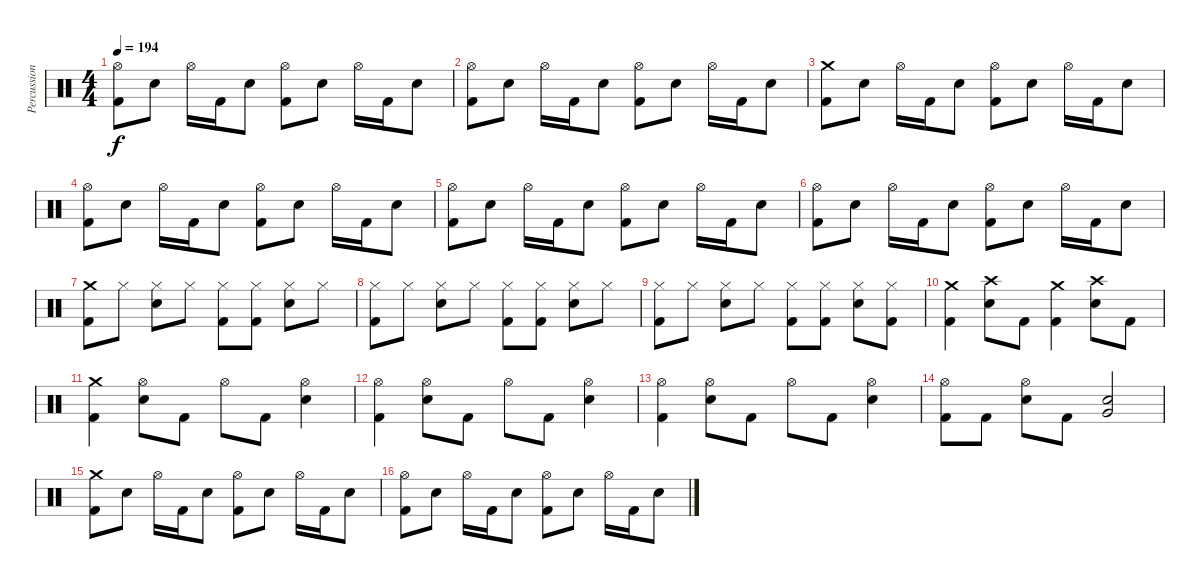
\track ("Percussions" "Percussion") {instrument percussion}
\staff {score}
\articulation defaults
\ts (4 4)
\tempo 194
\clef neutral
\ks c
("Hi-Hat (open)" "Kick (hit) 2").8{dy f} "Electric Snare (hit)".8 "Hi-Hat (open)".16 "Kick (hit) 2".16 "Electric Snare (hit)".8 ("Hi-Hat (open)" "Kick (hit) 2").8 "Electric Snare (hit)".8 "Hi-Hat (open)".16 "Kick (hit) 2".16 "Electric Snare (hit)".8 |
("Hi-Hat (open)" "Kick (hit) 2").8 "Electric Snare (hit)".8 "Hi-Hat (open)".16 "Kick (hit) 2".16 "Electric Snare (hit)".8 ("Hi-Hat (open)" "Kick (hit) 2").8 "Electric Snare (hit)".8 "Hi-Hat (open)".16 "Kick (hit) 2".16 "Electric Snare (hit)".8 |
("Crash medium (hit)" "Kick (hit) 2").8 "Electric Snare (hit)".8 "Hi-Hat (open)".16 "Kick (hit) 2".16 "Electric Snare (hit)".8 ("Hi-Hat (open)" "Kick (hit) 2").8 "Electric Snare (hit)".8 "Hi-Hat (open)".16 "Kick (hit) 2".16 "Electric Snare (hit)".8 |
("Hi-Hat (open)" "Kick (hit) 2").8 "Electric Snare (hit)".8 "Hi-Hat (open)".16 "Kick (hit) 2".16 "Electric Snare (hit)".8 ("Hi-Hat (open)" "Kick (hit) 2").8 "Electric Snare (hit)".8 "Hi-Hat (open)".16 "Kick (hit) 2".16 "Electric Snare (hit)".8 |
("Hi-Hat (open)" "Kick (hit) 2").8 "Electric Snare (hit)".8 "Hi-Hat (open)".16 "Kick (hit) 2".16 "Electric Snare (hit)".8 ("Hi-Hat (open)" "Kick (hit) 2").8 "Electric Snare (hit)".8 "Hi-Hat (open)".16 "Kick (hit) 2".16 "Electric Snare (hit)".8 |
("Hi-Hat (open)" "Kick (hit) 2").8 "Electric Snare (hit)".8 "Hi-Hat (open)".16 "Kick (hit) 2".16 "Electric Snare (hit)".8 ("Hi-Hat (open)" "Kick (hit) 2").8 "Electric Snare (hit)".8 "Hi-Hat (open)".16 "Kick (hit) 2".16 "Electric Snare (hit)".8 |
("Crash medium (hit)" "Kick (hit) 2").8 "Hi-Hat (closed)".8 ("Hi-Hat (closed)" "Electric Snare (hit)").8 "Hi-Hat (closed)".8 ("Hi-Hat (closed)" "Kick (hit) 2").8 ("Hi-Hat (closed)" "Kick (hit) 2").8 ("Hi-Hat (closed)" "Electric Snare (hit)").8 "Hi-Hat (closed)".8 |
("Hi-Hat (closed)" "Kick (hit) 2").8 "Hi-Hat (closed)".8 ("Hi-Hat (closed)" "Electric Snare (hit)").8 "Hi-Hat (closed)".8 ("Hi-Hat (closed)" "Kick (hit) 2").8 ("Hi-Hat (closed)" "Kick (hit) 2").8 ("Hi-Hat (closed)" "Electric Snare (hit)").8 "Hi-Hat (closed)".8 |
("Hi-Hat (closed)" "Kick (hit) 2").8 "Hi-Hat (closed)".8 ("Hi-Hat (closed)" "Electric Snare (hit)").8 "Hi-Hat (closed)".8 ("Hi-Hat (closed)" "Kick (hit) 2").8 ("Hi-Hat (closed)" "Kick (hit) 2").8 ("Hi-Hat (closed)" "Electric Snare (hit)").8 ("Hi-Hat (closed)" "Kick (hit) 2").8 |
("Crash medium (hit)" "Kick (hit) 2").4 ("Crash high (hit)" "Electric Snare (hit)").8 "Kick (hit) 2".8 ("Crash medium (hit)" "Kick (hit) 2").4 ("Crash high (hit)" "Electric Snare (hit)").8 "Kick (hit) 2".8 |
("Crash medium (hit)" "Kick (hit) 2").4 ("Hi-Hat (open)" "Electric Snare (hit)").8 "Kick (hit) 2".8 "Hi-Hat (open)".8 "Kick (hit) 2".8 ("Hi-Hat (open)" "Electric Snare (hit)").4 |
("Hi-Hat (open)" "Kick (hit) 2").4 ("Hi-Hat (open)" "Electric Snare (hit)").8 "Kick (hit) 2".8 "Hi-Hat (open)".8 "Kick (hit) 2".8 ("Hi-Hat (open)" "Electric Snare (hit)").4 |
("Hi-Hat (open)" "Kick (hit) 2").4 ("Hi-Hat (open)" "Electric Snare (hit)").8 "Kick (hit) 2".8 "Hi-Hat (open)".8 "Kick (hit) 2".8 ("Hi-Hat (open)" "Electric Snare (hit)").4 |
("Hi-Hat (open)" "Kick (hit) 2").8 "Kick (hit) 2".8 ("Hi-Hat (open)" "Electric Snare (hit)").8 "Kick (hit) 2".8 ("Very Low Tom (hit)" "Electric Snare (hit)").2 |
("Crash medium (hit)" "Kick (hit) 2").8 "Electric Snare (hit)".8 "Hi-Hat (open)".16 "Kick (hit) 2".16 "Electric Snare (hit)".8 ("Hi-Hat (open)" "Kick (hit) 2").8 "Electric Snare (hit)".8 "Hi-Hat (open)".16 "Kick (hit) 2".16 "Electric Snare (hit)".8 |
("Hi-Hat (open)" "Kick (hit) 2").8 "Electric Snare (hit)".8 "Hi-Hat (open)".16 "Kick (hit) 2".16 "Electric Snare (hit)".8 ("Hi-Hat (open)" "Kick (hit) 2").8 "Electric Snare (hit)".8 "Hi-Hat (open)".16 "Kick (hit) 2".16 "Electric Snare (hit)".8
